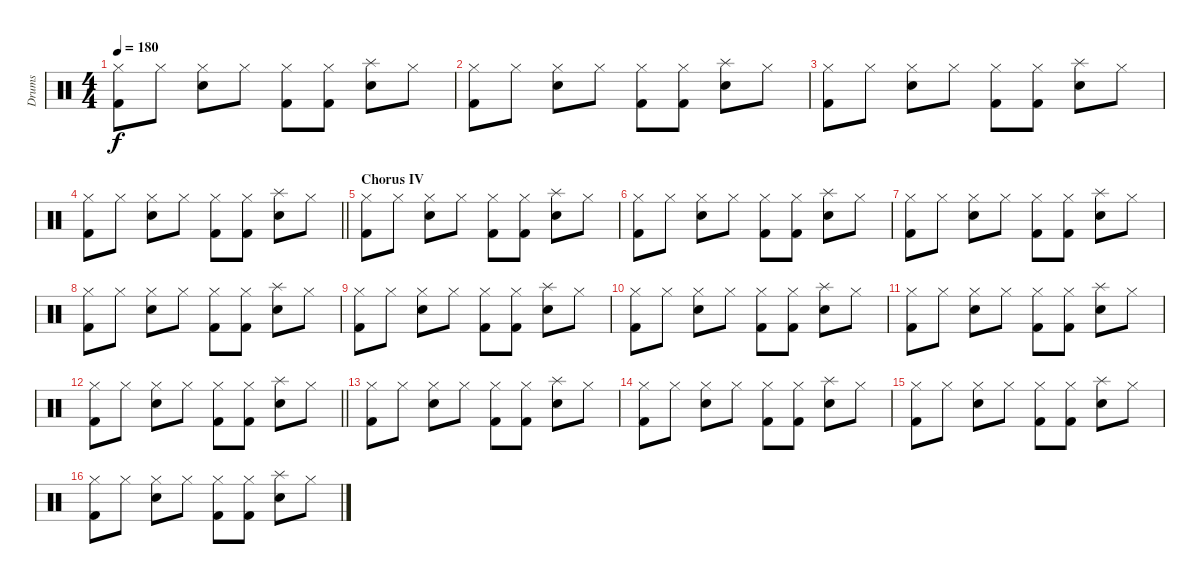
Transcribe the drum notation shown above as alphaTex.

\track ("Drums" "Drums") {instrument percussion}
\staff {score}
\articulation defaults
\ts (4 4)
\tempo 180
\clef neutral
\ks c
("Hi-Hat (closed)" "Kick (hit) 2").8{dy f} "Hi-Hat (closed)".8 ("Hi-Hat (closed)" "Snare (hit) 2").8 "Hi-Hat (closed)".8 ("Hi-Hat (closed)" "Kick (hit) 2").8 ("Hi-Hat (closed)" "Kick (hit) 2").8 ("Splash (hit)" "Snare (hit) 2").8 "Hi-Hat (closed)".8 |
("Hi-Hat (closed)" "Kick (hit) 2").8 "Hi-Hat (closed)".8 ("Hi-Hat (closed)" "Snare (hit) 2").8 "Hi-Hat (closed)".8 ("Hi-Hat (closed)" "Kick (hit) 2").8 ("Hi-Hat (closed)" "Kick (hit) 2").8 ("Splash (hit)" "Snare (hit) 2").8 "Hi-Hat (closed)".8 |
("Hi-Hat (closed)" "Kick (hit) 2").8 "Hi-Hat (closed)".8 ("Hi-Hat (closed)" "Snare (hit) 2").8 "Hi-Hat (closed)".8 ("Hi-Hat (closed)" "Kick (hit) 2").8 ("Hi-Hat (closed)" "Kick (hit) 2").8 ("Splash (hit)" "Snare (hit) 2").8 "Hi-Hat (closed)".8 |
\barLineRight lightlight
("Hi-Hat (closed)" "Kick (hit) 2").8 "Hi-Hat (closed)".8 ("Hi-Hat (closed)" "Snare (hit) 2").8 "Hi-Hat (closed)".8 ("Hi-Hat (closed)" "Kick (hit) 2").8 ("Hi-Hat (closed)" "Kick (hit) 2").8 ("Splash (hit)" "Snare (hit) 2").8 "Hi-Hat (closed)".8 |
\section ("" "Chorus IV")
("Hi-Hat (closed)" "Kick (hit) 2").8 "Hi-Hat (closed)".8 ("Hi-Hat (closed)" "Snare (hit) 2").8 "Hi-Hat (closed)".8 ("Hi-Hat (closed)" "Kick (hit) 2").8 ("Hi-Hat (closed)" "Kick (hit) 2").8 ("Splash (hit)" "Snare (hit) 2").8 "Hi-Hat (closed)".8 |
("Hi-Hat (closed)" "Kick (hit) 2").8 "Hi-Hat (closed)".8 ("Hi-Hat (closed)" "Snare (hit) 2").8 "Hi-Hat (closed)".8 ("Hi-Hat (closed)" "Kick (hit) 2").8 ("Hi-Hat (closed)" "Kick (hit) 2").8 ("Splash (hit)" "Snare (hit) 2").8 "Hi-Hat (closed)".8 |
("Hi-Hat (closed)" "Kick (hit) 2").8 "Hi-Hat (closed)".8 ("Hi-Hat (closed)" "Snare (hit) 2").8 "Hi-Hat (closed)".8 ("Hi-Hat (closed)" "Kick (hit) 2").8 ("Hi-Hat (closed)" "Kick (hit) 2").8 ("Splash (hit)" "Snare (hit) 2").8 "Hi-Hat (closed)".8 |
("Hi-Hat (closed)" "Kick (hit) 2").8 "Hi-Hat (closed)".8 ("Hi-Hat (closed)" "Snare (hit) 2").8 "Hi-Hat (closed)".8 ("Hi-Hat (closed)" "Kick (hit) 2").8 ("Hi-Hat (closed)" "Kick (hit) 2").8 ("Splash (hit)" "Snare (hit) 2").8 "Hi-Hat (closed)".8 |
("Hi-Hat (closed)" "Kick (hit) 2").8 "Hi-Hat (closed)".8 ("Hi-Hat (closed)" "Snare (hit) 2").8 "Hi-Hat (closed)".8 ("Hi-Hat (closed)" "Kick (hit) 2").8 ("Hi-Hat (closed)" "Kick (hit) 2").8 ("Splash (hit)" "Snare (hit) 2").8 "Hi-Hat (closed)".8 |
("Hi-Hat (closed)" "Kick (hit) 2").8 "Hi-Hat (closed)".8 ("Hi-Hat (closed)" "Snare (hit) 2").8 "Hi-Hat (closed)".8 ("Hi-Hat (closed)" "Kick (hit) 2").8 ("Hi-Hat (closed)" "Kick (hit) 2").8 ("Splash (hit)" "Snare (hit) 2").8 "Hi-Hat (closed)".8 |
("Hi-Hat (closed)" "Kick (hit) 2").8 "Hi-Hat (closed)".8 ("Hi-Hat (closed)" "Snare (hit) 2").8 "Hi-Hat (closed)".8 ("Hi-Hat (closed)" "Kick (hit) 2").8 ("Hi-Hat (closed)" "Kick (hit) 2").8 ("Splash (hit)" "Snare (hit) 2").8 "Hi-Hat (closed)".8 |
\barLineRight lightlight
("Hi-Hat (closed)" "Kick (hit) 2").8 "Hi-Hat (closed)".8 ("Hi-Hat (closed)" "Snare (hit) 2").8 "Hi-Hat (closed)".8 ("Hi-Hat (closed)" "Kick (hit) 2").8 ("Hi-Hat (closed)" "Kick (hit) 2").8 ("Splash (hit)" "Snare (hit) 2").8 "Hi-Hat (closed)".8 |
("Hi-Hat (closed)" "Kick (hit) 2").8 "Hi-Hat (closed)".8 ("Hi-Hat (closed)" "Snare (hit) 2").8 "Hi-Hat (closed)".8 ("Hi-Hat (closed)" "Kick (hit) 2").8 ("Hi-Hat (closed)" "Kick (hit) 2").8 ("Splash (hit)" "Snare (hit) 2").8 "Hi-Hat (closed)".8 |
("Hi-Hat (closed)" "Kick (hit) 2").8 "Hi-Hat (closed)".8 ("Hi-Hat (closed)" "Snare (hit) 2").8 "Hi-Hat (closed)".8 ("Hi-Hat (closed)" "Kick (hit) 2").8 ("Hi-Hat (closed)" "Kick (hit) 2").8 ("Splash (hit)" "Snare (hit) 2").8 "Hi-Hat (closed)".8 |
("Hi-Hat (closed)" "Kick (hit) 2").8 "Hi-Hat (closed)".8 ("Hi-Hat (closed)" "Snare (hit) 2").8 "Hi-Hat (closed)".8 ("Hi-Hat (closed)" "Kick (hit) 2").8 ("Hi-Hat (closed)" "Kick (hit) 2").8 ("Splash (hit)" "Snare (hit) 2").8 "Hi-Hat (closed)".8 |
("Hi-Hat (closed)" "Kick (hit) 2").8 "Hi-Hat (closed)".8 ("Hi-Hat (closed)" "Snare (hit) 2").8 "Hi-Hat (closed)".8 ("Hi-Hat (closed)" "Kick (hit) 2").8 ("Hi-Hat (closed)" "Kick (hit) 2").8 ("Splash (hit)" "Snare (hit) 2").8 "Hi-Hat (closed)".8
